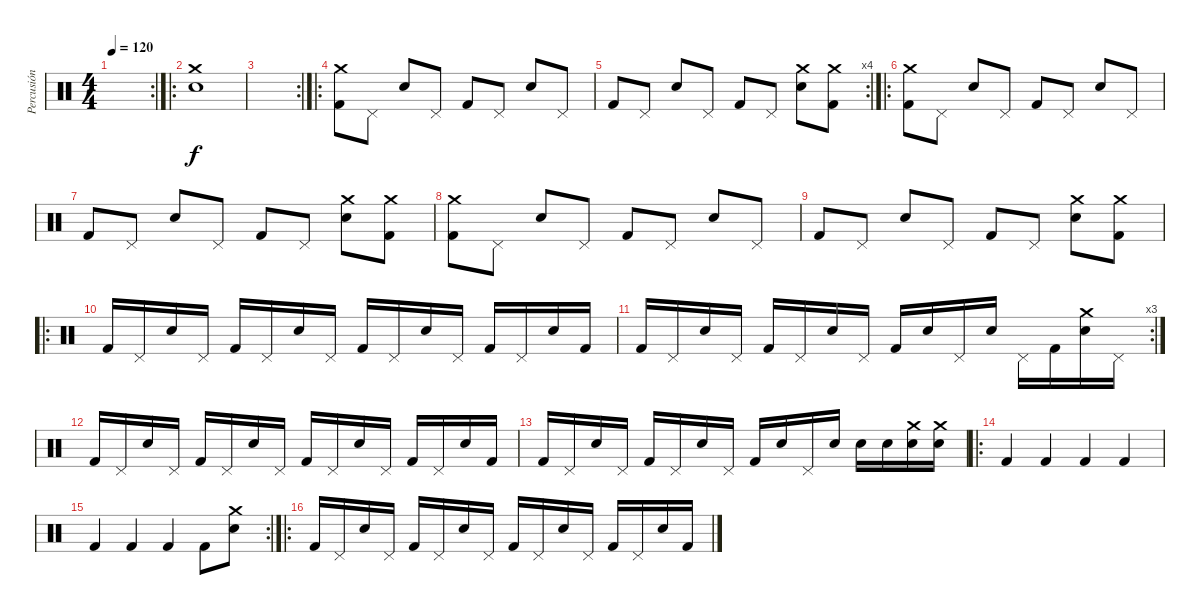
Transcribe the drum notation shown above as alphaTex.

\track ("Percusión" "Percusión") {instrument percussion}
\staff {score}
\articulation defaults
\rc 2
\ts (4 4)
\tempo 120
\clef neutral
\ks c
|
\ro
("Snare (hit) 2" "Crash medium (hit)").1 |
\rc 2
|
\ro
("Kick (hit) 2" "Crash medium (hit)").8 "Pedal Hi-Hat (hit)".8 "Snare (hit) 2".8 "Pedal Hi-Hat (hit)".8 "Kick (hit) 2".8 "Pedal Hi-Hat (hit)".8 "Snare (hit) 2".8 "Pedal Hi-Hat (hit)".8 |
\rc 4 "Kick (hit) 2".8 "Pedal Hi-Hat (hit)".8 "Snare (hit) 2".8 "Pedal Hi-Hat (hit)".8 "Kick (hit) 2".8 "Pedal Hi-Hat (hit)".8
("Snare (hit) 2" "Crash medium (hit)").8 ("Kick (hit) 2" "Crash medium (hit)").8 |
\ro
("Kick (hit) 2" "Crash medium (hit)").8 "Pedal Hi-Hat (hit)".8 "Snare (hit) 2".8 "Pedal Hi-Hat (hit)".8 "Kick (hit) 2".8 "Pedal Hi-Hat (hit)".8 "Snare (hit) 2".8 "Pedal Hi-Hat (hit)".8 |
"Kick (hit) 2".8 "Pedal Hi-Hat (hit)".8 "Snare (hit) 2".8 "Pedal Hi-Hat (hit)".8 "Kick (hit) 2".8 "Pedal Hi-Hat (hit)".8 ("Snare (hit) 2" "Crash medium (hit)").8 ("Kick (hit) 2" "Crash medium (hit)").8 |
("Kick (hit) 2" "Crash medium (hit)").8 "Pedal Hi-Hat (hit)".8 "Snare (hit) 2".8 "Pedal Hi-Hat (hit)".8 "Kick (hit) 2".8 "Pedal Hi-Hat (hit)".8 "Snare (hit) 2".8 "Pedal Hi-Hat (hit)".8 |
"Kick (hit) 2".8 "Pedal Hi-Hat (hit)".8 "Snare (hit) 2".8 "Pedal Hi-Hat (hit)".8 "Kick (hit) 2".8 "Pedal Hi-Hat (hit)".8 ("Snare (hit) 2" "Crash medium (hit)").8 ("Kick (hit) 2" "Crash medium (hit)").8 |
\ro "Kick (hit) 2".16 "Pedal Hi-Hat (hit)".16 "Snare (hit) 2".16 "Pedal Hi-Hat (hit)".16 "Kick (hit) 2".16 "Pedal Hi-Hat (hit)".16 "Snare (hit) 2".16 "Pedal Hi-Hat (hit)".16 "Kick (hit) 2".16 "Pedal Hi-Hat (hit)".16 "Snare (hit) 2".16 "Pedal Hi-Hat (hit)".16 "Kick (hit) 2".16 "Pedal Hi-Hat (hit)".16 "Snare (hit) 2".16 "Kick (hit) 2".16
|
\rc 3 "Kick (hit) 2".16 "Pedal Hi-Hat (hit)".16 "Snare (hit) 2".16 "Pedal Hi-Hat (hit)".16 "Kick (hit) 2".16 "Pedal Hi-Hat (hit)".16 "Snare (hit) 2".16 "Pedal Hi-Hat (hit)".16 "Kick (hit) 2".16 "Snare (hit) 2".16 "Pedal Hi-Hat (hit)".16 "Snare (hit) 2".16 "Pedal Hi-Hat (hit)".16 "Kick (hit) 2".16
("Snare (hit) 2" "Crash medium (hit)").16 "Pedal Hi-Hat (hit)".16 |
"Kick (hit) 2".16 "Pedal Hi-Hat (hit)".16 "Snare (hit) 2".16 "Pedal Hi-Hat (hit)".16 "Kick (hit) 2".16 "Pedal Hi-Hat (hit)".16 "Snare (hit) 2".16 "Pedal Hi-Hat (hit)".16 "Kick (hit) 2".16 "Pedal Hi-Hat (hit)".16 "Snare (hit) 2".16 "Pedal Hi-Hat (hit)".16 "Kick (hit) 2".16 "Pedal Hi-Hat (hit)".16 "Snare (hit) 2".16 "Kick (hit) 2".16 |
"Kick (hit) 2".16 "Pedal Hi-Hat (hit)".16 "Snare (hit) 2".16 "Pedal Hi-Hat (hit)".16 "Kick (hit) 2".16 "Pedal Hi-Hat (hit)".16 "Snare (hit) 2".16 "Pedal Hi-Hat (hit)".16 "Kick (hit) 2".16 "Snare (hit) 2".16 "Pedal Hi-Hat (hit)".16 "Snare (hit) 2".16 "Snare (hit) 2".16 "Snare (hit) 2".16 ("Snare (hit) 2" "Crash medium (hit)").16 ("Snare (hit) 2" "Crash medium (hit)").16 |
\ro "Kick (hit) 2".4 "Kick (hit) 2".4 "Kick (hit) 2".4 "Kick (hit) 2".4
|
\rc 2 "Kick (hit) 2".4 "Kick (hit) 2".4 "Kick (hit) 2".4 "Kick (hit) 2".8
("Snare (hit) 2" "Crash medium (hit)").8 |
\ro "Kick (hit) 2".16 "Pedal Hi-Hat (hit)".16 "Snare (hit) 2".16 "Pedal Hi-Hat (hit)".16 "Kick (hit) 2".16 "Pedal Hi-Hat (hit)".16 "Snare (hit) 2".16 "Pedal Hi-Hat (hit)".16 "Kick (hit) 2".16 "Pedal Hi-Hat (hit)".16 "Snare (hit) 2".16 "Pedal Hi-Hat (hit)".16 "Kick (hit) 2".16 "Pedal Hi-Hat (hit)".16 "Snare (hit) 2".16 "Kick (hit) 2".16
